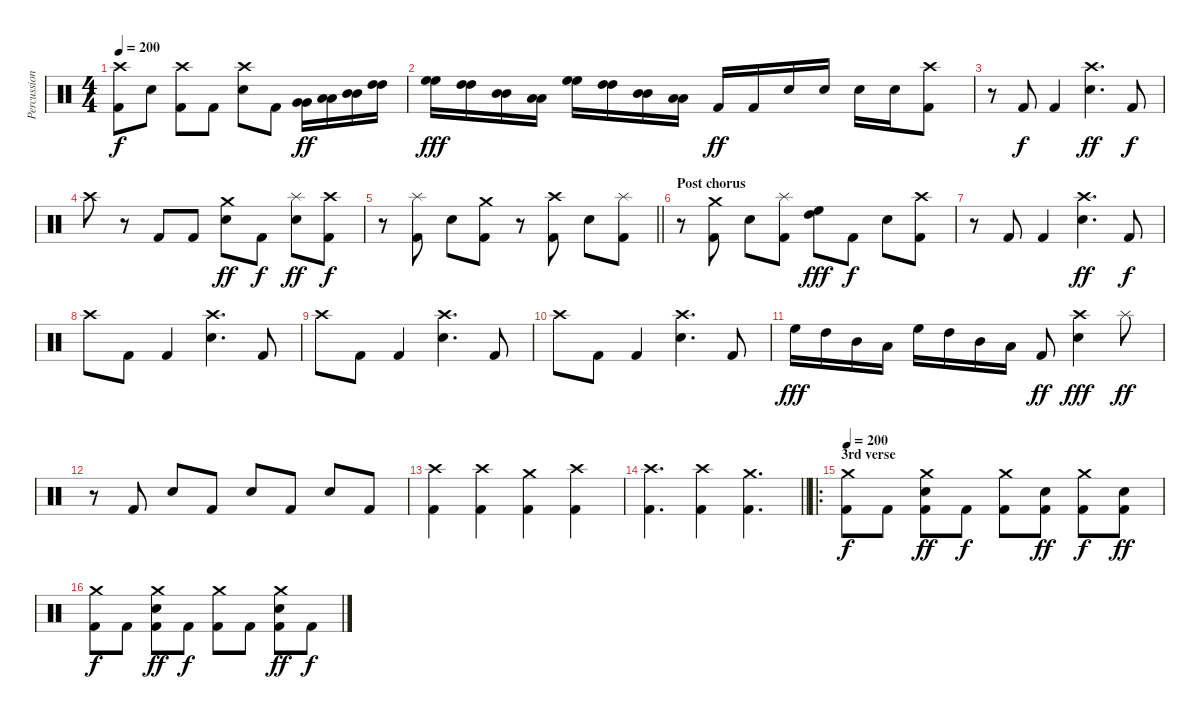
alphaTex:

\track ("Percussion" "Percussion") {instrument percussion}
\staff {score}
\articulation defaults
\ts (4 4)
\tempo 200
\clef neutral
\ks c
("Crash high (hit)" "Kick (hit) 2").8{dy f} "Snare (hit) 2".8 ("Crash high (hit)" "Kick (hit) 2").8 "Kick (hit) 2".8 ("Crash high (hit)" "Snare (hit) 2").8 "Kick (hit) 2".8 ("Very Low Tom (hit)" "Very Low Tom (hit)").16{dy ff} ("Low Tom (hit)" "Low Tom (hit)").16 ("Mid Tom (hit)" "Mid Tom (hit)").16 ("High Tom (hit)" "High Tom (hit)").16 |
("High Floor Tom (hit)" "High Floor Tom (hit)").16{dy fff} ("High Tom (hit)" "High Tom (hit)").16 ("Mid Tom (hit)" "Mid Tom (hit)").16 ("Low Tom (hit)" "Low Tom (hit)").16 ("High Floor Tom (hit)" "High Floor Tom (hit)").16 ("High Tom (hit)" "High Tom (hit)").16 ("Mid Tom (hit)" "Mid Tom (hit)").16 ("Low Tom (hit)" "Low Tom (hit)").16 "Kick (hit) 2".16{dy ff} "Kick (hit) 2".16 "Snare (hit) 2".16 "Snare (hit) 2".16 "Snare (hit) 2".16 "Snare (hit) 2".16 ("Crash high (hit)" "Kick (hit) 2").8 |
r.8 "Kick (hit) 2".8{dy f} "Kick (hit) 2".4 ("Crash high (hit)" "Snare (hit) 2").4{d dy ff} "Kick (hit) 2".8{dy f} |
"Crash high (hit)".8 r.8 "Kick (hit) 2".8 "Kick (hit) 2".8 ("Crash medium (hit)" "Snare (hit) 2").8{dy ff} "Kick (hit) 2".8{dy f} ("Splash (hit)" "Snare (hit) 2").8{dy ff} ("Crash high (hit)" "Kick (hit) 2").8{dy f} |
\barLineRight lightlight
r.8 ("Splash (hit)" "Kick (hit) 2").8 "Snare (hit) 2".8 ("Crash medium (hit)" "Kick (hit) 2").8 r.8 ("Crash high (hit)" "Kick (hit) 2").8 "Snare (hit) 2".8 ("Splash (hit)" "Kick (hit) 2").8 |
\section ("" "Post chorus")
r.8 ("Crash medium (hit)" "Kick (hit) 2").8 "Snare (hit) 2".8 ("Splash (hit)" "Kick (hit) 2").8 ("High Tom (hit)" "High Floor Tom (hit)").8{dy fff} "Kick (hit) 2".8{dy f} "Snare (hit) 2".8 ("Crash high (hit)" "Kick (hit) 2").8 |
r.8 "Kick (hit) 2".8 "Kick (hit) 2".4 ("Crash high (hit)" "Snare (hit) 2").4{d dy ff} "Kick (hit) 2".8{dy f} |
"Crash high (hit)".8 "Kick (hit) 2".8 "Kick (hit) 2".4 ("Crash high (hit)" "Snare (hit) 2").4{d} "Kick (hit) 2".8 |
"Crash high (hit)".8 "Kick (hit) 2".8 "Kick (hit) 2".4 ("Crash high (hit)" "Snare (hit) 2").4{d} "Kick (hit) 2".8 |
"Crash high (hit)".8 "Kick (hit) 2".8 "Kick (hit) 2".4 ("Crash high (hit)" "Snare (hit) 2").4{d} "Kick (hit) 2".8 |
"High Floor Tom (hit)".16{dy fff} "High Tom (hit)".16 "Mid Tom (hit)".16 "Low Tom (hit)".16 "High Floor Tom (hit)".16 "High Tom (hit)".16 "Mid Tom (hit)".16 "Low Tom (hit)".16 "Kick (hit) 2".8{dy ff} ("Crash high (hit)" "Snare (hit) 2").4{dy fff} "Splash (hit)".8{dy ff} |
r.8 "Kick (hit) 2".8 "Snare (hit) 2".8 "Kick (hit) 2".8 "Snare (hit) 2".8 "Kick (hit) 2".8 "Snare (hit) 2".8 "Kick (hit) 2".8 |
("Crash high (hit)" "Kick (hit) 2").4 ("Crash high (hit)" "Kick (hit) 2").4 ("Crash medium (hit)" "Kick (hit) 2").4 ("Crash high (hit)" "Kick (hit) 2").4 |
\barLineRight lightlight
("Crash high (hit)" "Kick (hit) 2").4{d} ("Crash high (hit)" "Kick (hit) 2").4 ("Crash medium (hit)" "Kick (hit) 2").4{d} |
\ro
\section ("" "3rd verse")
\tempo 205
\tempo 200
("Crash medium (hit)" "Kick (hit) 2").8{dy f} "Kick (hit) 2".8 ("Crash medium (hit)" "Snare (hit) 2" "Kick (hit) 2").8{dy ff} "Kick (hit) 2".8{dy f} ("Crash medium (hit)" "Kick (hit) 2").8 ("Snare (hit) 2" "Kick (hit) 2").8{dy ff} ("Crash medium (hit)" "Kick (hit) 2").8{dy f} ("Snare (hit) 2" "Kick (hit) 2").8{dy ff} |
("Crash medium (hit)" "Kick (hit) 2").8{dy f} "Kick (hit) 2".8 ("Crash medium (hit)" "Snare (hit) 2" "Kick (hit) 2").8{dy ff} "Kick (hit) 2".8{dy f} ("Crash medium (hit)" "Kick (hit) 2").8 "Kick (hit) 2".8 ("Crash medium (hit)" "Snare (hit) 2" "Kick (hit) 2").8{dy ff} "Kick (hit) 2".8{dy f}
